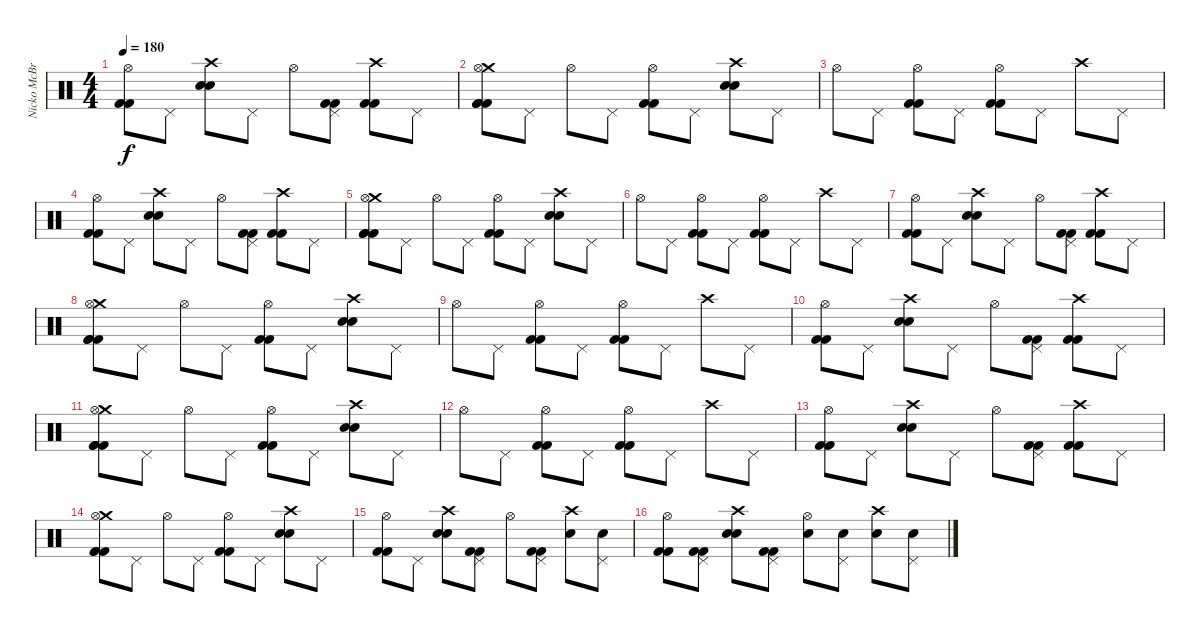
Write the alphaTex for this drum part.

\track ("Nicko McBrain" "Nicko McBr") {instrument percussion}
\staff {score}
\articulation defaults
\ts (4 4)
\tempo 180
\clef neutral
\ks c
("Hi-Hat (open)" "Kick (hit) 2" "Kick (hit) 2").8{dy f} "Pedal Hi-Hat (hit)".8 ("Crash high (hit)" "Snare (hit) 2" "Snare (hit) 2").8 "Pedal Hi-Hat (hit)".8 "Hi-Hat (open)".8 ("Pedal Hi-Hat (hit)" "Kick (hit) 2" "Kick (hit) 2").8 ("Crash high (hit)" "Kick (hit) 2" "Kick (hit) 2").8 "Pedal Hi-Hat (hit)".8 |
("Crash medium (hit)" "Hi-Hat (open)" "Kick (hit) 2" "Kick (hit) 2" "Kick (hit) 2").8 "Pedal Hi-Hat (hit)".8 "Hi-Hat (open)".8 "Pedal Hi-Hat (hit)".8 ("Hi-Hat (open)" "Kick (hit) 2" "Kick (hit) 2").8 "Pedal Hi-Hat (hit)".8 ("Crash high (hit)" "Snare (hit) 2" "Snare (hit) 2").8 "Pedal Hi-Hat (hit)".8 |
"Hi-Hat (open)".8 "Pedal Hi-Hat (hit)".8 ("Hi-Hat (open)" "Kick (hit) 2" "Kick (hit) 2").8 "Pedal Hi-Hat (hit)".8 ("Hi-Hat (open)" "Kick (hit) 2" "Kick (hit) 2").8 "Pedal Hi-Hat (hit)".8 "Crash high (hit)".8 "Pedal Hi-Hat (hit)".8 |
("Hi-Hat (open)" "Kick (hit) 2" "Kick (hit) 2").8 "Pedal Hi-Hat (hit)".8 ("Crash high (hit)" "Snare (hit) 2" "Snare (hit) 2").8 "Pedal Hi-Hat (hit)".8 "Hi-Hat (open)".8 ("Pedal Hi-Hat (hit)" "Kick (hit) 2" "Kick (hit) 2").8 ("Crash high (hit)" "Kick (hit) 2" "Kick (hit) 2").8 "Pedal Hi-Hat (hit)".8 |
("Crash medium (hit)" "Hi-Hat (open)" "Kick (hit) 2" "Kick (hit) 2" "Kick (hit) 2").8 "Pedal Hi-Hat (hit)".8 "Hi-Hat (open)".8 "Pedal Hi-Hat (hit)".8 ("Hi-Hat (open)" "Kick (hit) 2" "Kick (hit) 2").8 "Pedal Hi-Hat (hit)".8 ("Crash high (hit)" "Snare (hit) 2" "Snare (hit) 2").8 "Pedal Hi-Hat (hit)".8 |
"Hi-Hat (open)".8 "Pedal Hi-Hat (hit)".8 ("Hi-Hat (open)" "Kick (hit) 2" "Kick (hit) 2").8 "Pedal Hi-Hat (hit)".8 ("Hi-Hat (open)" "Kick (hit) 2" "Kick (hit) 2").8 "Pedal Hi-Hat (hit)".8 "Crash high (hit)".8 "Pedal Hi-Hat (hit)".8 |
("Hi-Hat (open)" "Kick (hit) 2" "Kick (hit) 2").8 "Pedal Hi-Hat (hit)".8 ("Crash high (hit)" "Snare (hit) 2" "Snare (hit) 2").8 "Pedal Hi-Hat (hit)".8 "Hi-Hat (open)".8 ("Pedal Hi-Hat (hit)" "Kick (hit) 2" "Kick (hit) 2").8 ("Crash high (hit)" "Kick (hit) 2" "Kick (hit) 2").8 "Pedal Hi-Hat (hit)".8 |
("Crash medium (hit)" "Hi-Hat (open)" "Kick (hit) 2" "Kick (hit) 2" "Kick (hit) 2").8 "Pedal Hi-Hat (hit)".8 "Hi-Hat (open)".8 "Pedal Hi-Hat (hit)".8 ("Hi-Hat (open)" "Kick (hit) 2" "Kick (hit) 2").8 "Pedal Hi-Hat (hit)".8 ("Crash high (hit)" "Snare (hit) 2" "Snare (hit) 2").8 "Pedal Hi-Hat (hit)".8 |
"Hi-Hat (open)".8 "Pedal Hi-Hat (hit)".8 ("Hi-Hat (open)" "Kick (hit) 2" "Kick (hit) 2").8 "Pedal Hi-Hat (hit)".8 ("Hi-Hat (open)" "Kick (hit) 2" "Kick (hit) 2").8 "Pedal Hi-Hat (hit)".8 "Crash high (hit)".8 "Pedal Hi-Hat (hit)".8 |
("Hi-Hat (open)" "Kick (hit) 2" "Kick (hit) 2").8 "Pedal Hi-Hat (hit)".8 ("Crash high (hit)" "Snare (hit) 2" "Snare (hit) 2").8 "Pedal Hi-Hat (hit)".8 "Hi-Hat (open)".8 ("Pedal Hi-Hat (hit)" "Kick (hit) 2" "Kick (hit) 2").8 ("Crash high (hit)" "Kick (hit) 2" "Kick (hit) 2").8 "Pedal Hi-Hat (hit)".8 |
("Crash medium (hit)" "Hi-Hat (open)" "Kick (hit) 2" "Kick (hit) 2" "Kick (hit) 2").8 "Pedal Hi-Hat (hit)".8 "Hi-Hat (open)".8 "Pedal Hi-Hat (hit)".8 ("Hi-Hat (open)" "Kick (hit) 2" "Kick (hit) 2").8 "Pedal Hi-Hat (hit)".8 ("Crash high (hit)" "Snare (hit) 2" "Snare (hit) 2").8 "Pedal Hi-Hat (hit)".8 |
"Hi-Hat (open)".8 "Pedal Hi-Hat (hit)".8 ("Hi-Hat (open)" "Kick (hit) 2" "Kick (hit) 2").8 "Pedal Hi-Hat (hit)".8 ("Hi-Hat (open)" "Kick (hit) 2" "Kick (hit) 2").8 "Pedal Hi-Hat (hit)".8 "Crash high (hit)".8 "Pedal Hi-Hat (hit)".8 |
("Hi-Hat (open)" "Kick (hit) 2" "Kick (hit) 2").8 "Pedal Hi-Hat (hit)".8 ("Crash high (hit)" "Snare (hit) 2" "Snare (hit) 2").8 "Pedal Hi-Hat (hit)".8 "Hi-Hat (open)".8 ("Pedal Hi-Hat (hit)" "Kick (hit) 2" "Kick (hit) 2").8 ("Crash high (hit)" "Kick (hit) 2" "Kick (hit) 2").8 "Pedal Hi-Hat (hit)".8 |
("Crash medium (hit)" "Hi-Hat (open)" "Kick (hit) 2" "Kick (hit) 2" "Kick (hit) 2").8 "Pedal Hi-Hat (hit)".8 "Hi-Hat (open)".8 "Pedal Hi-Hat (hit)".8 ("Hi-Hat (open)" "Kick (hit) 2" "Kick (hit) 2").8 "Pedal Hi-Hat (hit)".8 ("Crash high (hit)" "Snare (hit) 2" "Snare (hit) 2").8 "Pedal Hi-Hat (hit)".8 |
("Hi-Hat (open)" "Kick (hit) 2" "Kick (hit) 2").8 "Pedal Hi-Hat (hit)".8 ("Crash high (hit)" "Snare (hit) 2" "Snare (hit) 2").8 ("Pedal Hi-Hat (hit)" "Kick (hit) 2" "Kick (hit) 2").8 "Hi-Hat (open)".8 ("Pedal Hi-Hat (hit)" "Kick (hit) 2" "Kick (hit) 2").8 ("Crash high (hit)" "Snare (hit) 2").8 ("Pedal Hi-Hat (hit)" "Snare (hit) 2").8 |
("Hi-Hat (open)" "Kick (hit) 2" "Kick (hit) 2").8 ("Pedal Hi-Hat (hit)" "Kick (hit) 2" "Kick (hit) 2").8 ("Crash high (hit)" "Snare (hit) 2" "Snare (hit) 2").8 ("Pedal Hi-Hat (hit)" "Kick (hit) 2" "Kick (hit) 2").8 ("Hi-Hat (open)" "Snare (hit) 2").8 ("Pedal Hi-Hat (hit)" "Snare (hit) 2").8 ("Crash high (hit)" "Snare (hit) 2").8 ("Pedal Hi-Hat (hit)" "Snare (hit) 2").8
